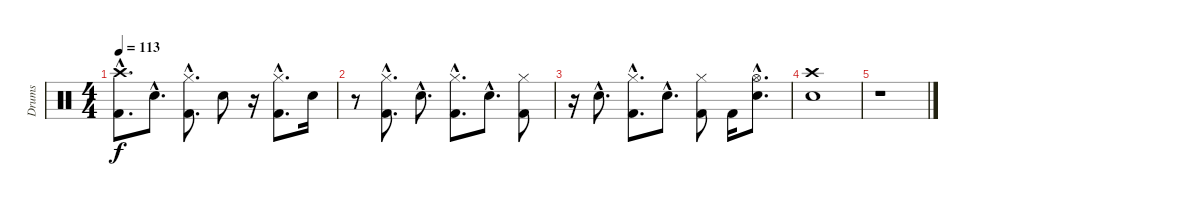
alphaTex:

\track ("Drums" "Drums") {instrument percussion}
\staff {score}
\articulation defaults
\ts (4 4)
\tempo 113
\clef neutral
\ks c
("Crash high (hit)"{hac} "Kick (hit) 2"{hac}).8{d dy f} "Electric Snare (hit)"{hac}.8{d} ("Hi-Hat (closed)"{hac} "Kick (hit) 2"{hac}).8{d} "Electric Snare (hit)".8 r.16 ("Hi-Hat (closed)"{hac} "Kick (hit) 2"{hac}).8{d} "Electric Snare (hit)".16 |
r.8 ("Hi-Hat (closed)"{hac} "Kick (hit) 2"{hac}).8{d} "Electric Snare (hit)"{hac}.8{d} ("Hi-Hat (closed)"{hac} "Kick (hit) 2"{hac}).8{d} "Electric Snare (hit)"{hac}.8{d} ("Hi-Hat (closed)" "Kick (hit) 2").8 |
r.16 "Electric Snare (hit)"{hac}.8{d} ("Hi-Hat (closed)"{hac} "Kick (hit) 2"{hac}).8{d} "Electric Snare (hit)"{hac}.8{d} ("Hi-Hat (closed)" "Kick (hit) 2").8 "Kick (hit) 2".16 ("Hi-Hat (open)"{hac} "Electric Snare (hit)"{hac}).8{d} |
("Crash high (hit)" "Electric Snare (hit)").1 |
r.1
